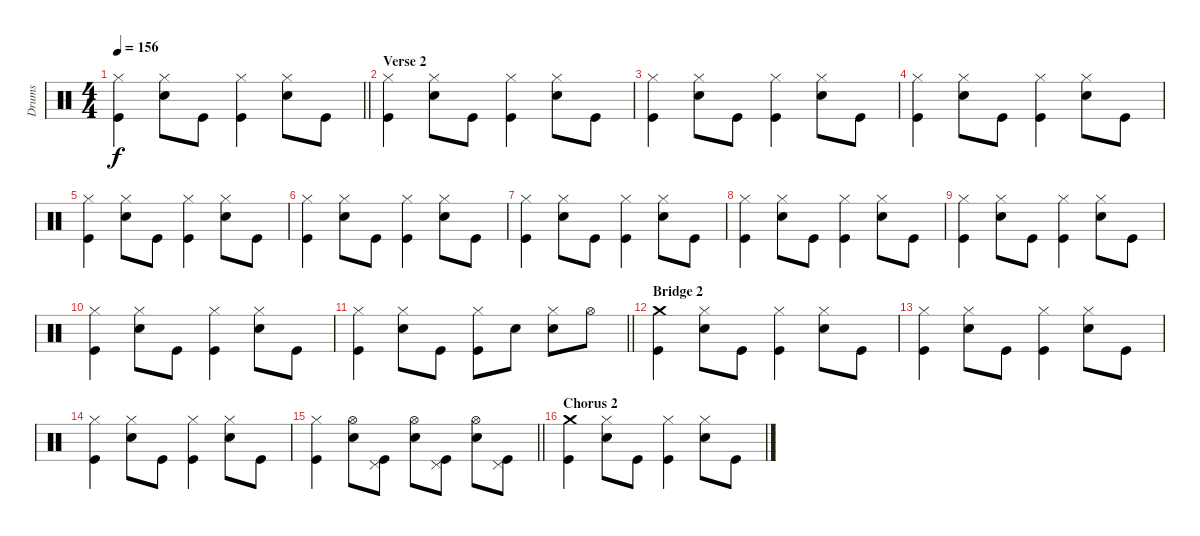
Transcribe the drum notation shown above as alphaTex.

\track ("Drums" "Drums") {instrument percussion}
\staff {score}
\articulation defaults
\ts (4 4)
\tempo 156
\clef neutral
\barLineRight lightlight
\ks c
("Hi-Hat (closed)" "Kick (hit)").4{dy f} ("Hi-Hat (closed)" "Snare (hit) 2").8 "Kick (hit)".8 ("Hi-Hat (closed)" "Kick (hit)").4 ("Hi-Hat (closed)" "Snare (hit) 2").8 "Kick (hit)".8 |
\section ("" "Verse 2")
("Hi-Hat (closed)" "Kick (hit)").4 ("Hi-Hat (closed)" "Snare (hit) 2").8 "Kick (hit)".8 ("Hi-Hat (closed)" "Kick (hit)").4 ("Hi-Hat (closed)" "Snare (hit) 2").8 "Kick (hit)".8 |
("Hi-Hat (closed)" "Kick (hit)").4 ("Hi-Hat (closed)" "Snare (hit) 2").8 "Kick (hit)".8 ("Hi-Hat (closed)" "Kick (hit)").4 ("Hi-Hat (closed)" "Snare (hit) 2").8 "Kick (hit)".8 |
("Hi-Hat (closed)" "Kick (hit)").4 ("Hi-Hat (closed)" "Snare (hit) 2").8 "Kick (hit)".8 ("Hi-Hat (closed)" "Kick (hit)").4 ("Hi-Hat (closed)" "Snare (hit) 2").8 "Kick (hit)".8 |
("Hi-Hat (closed)" "Kick (hit)").4 ("Hi-Hat (closed)" "Snare (hit) 2").8 "Kick (hit)".8 ("Hi-Hat (closed)" "Kick (hit)").4 ("Hi-Hat (closed)" "Snare (hit) 2").8 "Kick (hit)".8 |
("Hi-Hat (closed)" "Kick (hit)").4 ("Hi-Hat (closed)" "Snare (hit) 2").8 "Kick (hit)".8 ("Hi-Hat (closed)" "Kick (hit)").4 ("Hi-Hat (closed)" "Snare (hit) 2").8 "Kick (hit)".8 |
("Hi-Hat (closed)" "Kick (hit)").4 ("Hi-Hat (closed)" "Snare (hit) 2").8 "Kick (hit)".8 ("Hi-Hat (closed)" "Kick (hit)").4 ("Hi-Hat (closed)" "Snare (hit) 2").8 "Kick (hit)".8 |
("Hi-Hat (closed)" "Kick (hit)").4 ("Hi-Hat (closed)" "Snare (hit) 2").8 "Kick (hit)".8 ("Hi-Hat (closed)" "Kick (hit)").4 ("Hi-Hat (closed)" "Snare (hit) 2").8 "Kick (hit)".8 |
("Hi-Hat (closed)" "Kick (hit)").4 ("Hi-Hat (closed)" "Snare (hit) 2").8 "Kick (hit)".8 ("Hi-Hat (closed)" "Kick (hit)").4 ("Hi-Hat (closed)" "Snare (hit) 2").8 "Kick (hit)".8 |
("Hi-Hat (closed)" "Kick (hit)").4 ("Hi-Hat (closed)" "Snare (hit) 2").8 "Kick (hit)".8 ("Hi-Hat (closed)" "Kick (hit)").4 ("Hi-Hat (closed)" "Snare (hit) 2").8 "Kick (hit)".8 |
\barLineRight lightlight
("Hi-Hat (closed)" "Kick (hit)").4 ("Hi-Hat (closed)" "Snare (hit) 2").8 "Kick (hit)".8 ("Hi-Hat (closed)" "Kick (hit)").8 "Snare (hit) 2".8 ("Hi-Hat (closed)" "Snare (hit) 2").8 "Hi-Hat (open)".8 |
\section ("" "Bridge 2")
("Crash medium (hit)" "Kick (hit)").4 ("Hi-Hat (closed)" "Snare (hit) 2").8 "Kick (hit)".8 ("Hi-Hat (closed)" "Kick (hit)").4 ("Hi-Hat (closed)" "Snare (hit) 2").8 "Kick (hit)".8 |
("Hi-Hat (closed)" "Kick (hit)").4 ("Hi-Hat (closed)" "Snare (hit) 2").8 "Kick (hit)".8 ("Hi-Hat (closed)" "Kick (hit)").4 ("Hi-Hat (closed)" "Snare (hit) 2").8 "Kick (hit)".8 |
("Hi-Hat (closed)" "Kick (hit)").4 ("Hi-Hat (closed)" "Snare (hit) 2").8 "Kick (hit)".8 ("Hi-Hat (closed)" "Kick (hit)").4 ("Hi-Hat (closed)" "Snare (hit) 2").8 "Kick (hit)".8 |
\barLineRight lightlight
("Hi-Hat (closed)" "Kick (hit)").4 ("Hi-Hat (open)" "Snare (hit) 2").8 ("Pedal Hi-Hat (hit)" "Kick (hit)").8 ("Hi-Hat (open)" "Snare (hit) 2").8 ("Pedal Hi-Hat (hit)" "Kick (hit)").8 ("Hi-Hat (open)" "Snare (hit) 2").8 ("Pedal Hi-Hat (hit)" "Kick (hit)").8 |
\section ("" "Chorus 2")
("Crash medium (hit)" "Kick (hit)").4 ("Hi-Hat (closed)" "Snare (hit) 2").8 "Kick (hit)".8 ("Hi-Hat (closed)" "Kick (hit)").4 ("Hi-Hat (closed)" "Snare (hit) 2").8 "Kick (hit)".8
